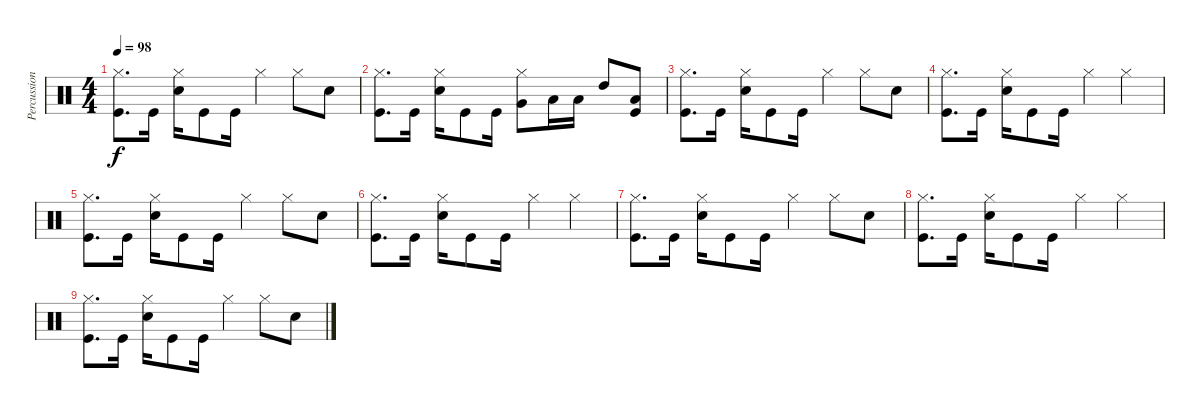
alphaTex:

\track ("Percussioni" "Percussion") {instrument percussion}
\staff {score}
\articulation defaults
\ts (4 4)
\tempo 98
\clef neutral
\ks c
("Kick (hit)" "Hi-Hat (closed)").8{d dy f} "Kick (hit)".16 ("Snare (hit) 2" "Hi-Hat (closed)").16 "Kick (hit)".8 "Kick (hit)".16 "Hi-Hat (closed)".4 "Hi-Hat (closed)".8 "Snare (hit) 2".8 |
("Kick (hit)" "Hi-Hat (closed)").8{d} "Kick (hit)".16 ("Snare (hit) 2" "Hi-Hat (closed)").16 "Kick (hit)".8 "Kick (hit)".16 ("Hi-Hat (closed)" "Very Low Tom (hit)").8 "Low Tom (hit)".16 "Low Tom (hit)".16 "High Tom (hit)".8 ("Low Tom (hit)" "Kick (hit)").8 |
("Kick (hit)" "Hi-Hat (closed)").8{d} "Kick (hit)".16 ("Snare (hit) 2" "Hi-Hat (closed)").16 "Kick (hit)".8 "Kick (hit)".16 "Hi-Hat (closed)".4 "Hi-Hat (closed)".8 "Snare (hit) 2".8 |
("Kick (hit)" "Hi-Hat (closed)").8{d} "Kick (hit)".16 ("Snare (hit) 2" "Hi-Hat (closed)").16 "Kick (hit)".8 "Kick (hit)".16 "Hi-Hat (closed)".4 "Hi-Hat (closed)".4 |
("Kick (hit)" "Hi-Hat (closed)").8{d} "Kick (hit)".16 ("Snare (hit) 2" "Hi-Hat (closed)").16 "Kick (hit)".8 "Kick (hit)".16 "Hi-Hat (closed)".4 "Hi-Hat (closed)".8 "Snare (hit) 2".8 |
("Kick (hit)" "Hi-Hat (closed)").8{d} "Kick (hit)".16 ("Snare (hit) 2" "Hi-Hat (closed)").16 "Kick (hit)".8 "Kick (hit)".16 "Hi-Hat (closed)".4 "Hi-Hat (closed)".4 |
("Kick (hit)" "Hi-Hat (closed)").8{d} "Kick (hit)".16 ("Snare (hit) 2" "Hi-Hat (closed)").16 "Kick (hit)".8 "Kick (hit)".16 "Hi-Hat (closed)".4 "Hi-Hat (closed)".8 "Snare (hit) 2".8 |
("Kick (hit)" "Hi-Hat (closed)").8{d} "Kick (hit)".16 ("Snare (hit) 2" "Hi-Hat (closed)").16 "Kick (hit)".8 "Kick (hit)".16 "Hi-Hat (closed)".4 "Hi-Hat (closed)".4 |
("Kick (hit)" "Hi-Hat (closed)").8{d} "Kick (hit)".16 ("Snare (hit) 2" "Hi-Hat (closed)").16 "Kick (hit)".8 "Kick (hit)".16 "Hi-Hat (closed)".4 "Hi-Hat (closed)".8 "Snare (hit) 2".8
